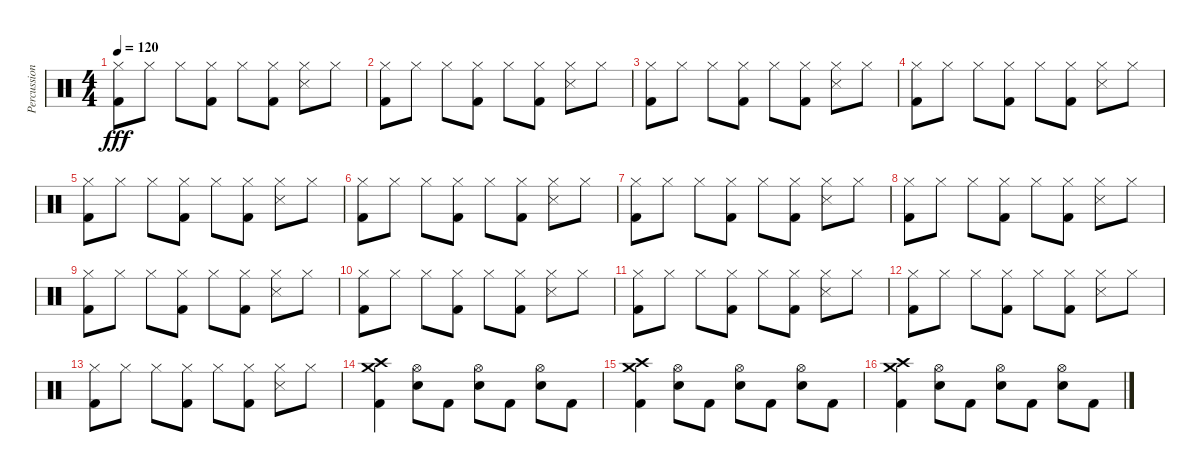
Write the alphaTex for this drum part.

\track ("Percussion" "Percussion") {instrument percussion}
\staff {score}
\articulation defaults
\ts (4 4)
\tempo 120
\clef neutral
\ks c
("Hi-Hat (closed)" "Kick (hit) 2").8{dy fff} "Hi-Hat (closed)".8 "Hi-Hat (closed)".8 ("Hi-Hat (closed)" "Kick (hit) 2").8 "Hi-Hat (closed)".8 ("Hi-Hat (closed)" "Kick (hit) 2").8 ("Hi-Hat (closed)" "Snare (side stick) 3").8 "Hi-Hat (closed)".8 |
("Hi-Hat (closed)" "Kick (hit) 2").8 "Hi-Hat (closed)".8 "Hi-Hat (closed)".8 ("Hi-Hat (closed)" "Kick (hit) 2").8 "Hi-Hat (closed)".8 ("Hi-Hat (closed)" "Kick (hit) 2").8 ("Hi-Hat (closed)" "Snare (side stick) 3").8 "Hi-Hat (closed)".8 |
("Hi-Hat (closed)" "Kick (hit) 2").8 "Hi-Hat (closed)".8 "Hi-Hat (closed)".8 ("Hi-Hat (closed)" "Kick (hit) 2").8 "Hi-Hat (closed)".8 ("Hi-Hat (closed)" "Kick (hit) 2").8 ("Hi-Hat (closed)" "Snare (side stick) 3").8 "Hi-Hat (closed)".8 |
("Hi-Hat (closed)" "Kick (hit) 2").8 "Hi-Hat (closed)".8 "Hi-Hat (closed)".8 ("Hi-Hat (closed)" "Kick (hit) 2").8 "Hi-Hat (closed)".8 ("Hi-Hat (closed)" "Kick (hit) 2").8 ("Hi-Hat (closed)" "Snare (side stick) 3").8 "Hi-Hat (closed)".8 |
("Hi-Hat (closed)" "Kick (hit) 2").8 "Hi-Hat (closed)".8 "Hi-Hat (closed)".8 ("Hi-Hat (closed)" "Kick (hit) 2").8 "Hi-Hat (closed)".8 ("Hi-Hat (closed)" "Kick (hit) 2").8 ("Hi-Hat (closed)" "Snare (side stick) 3").8 "Hi-Hat (closed)".8 |
("Hi-Hat (closed)" "Kick (hit) 2").8 "Hi-Hat (closed)".8 "Hi-Hat (closed)".8 ("Hi-Hat (closed)" "Kick (hit) 2").8 "Hi-Hat (closed)".8 ("Hi-Hat (closed)" "Kick (hit) 2").8 ("Hi-Hat (closed)" "Snare (side stick) 3").8 "Hi-Hat (closed)".8 |
("Hi-Hat (closed)" "Kick (hit) 2").8 "Hi-Hat (closed)".8 "Hi-Hat (closed)".8 ("Hi-Hat (closed)" "Kick (hit) 2").8 "Hi-Hat (closed)".8 ("Hi-Hat (closed)" "Kick (hit) 2").8 ("Hi-Hat (closed)" "Snare (side stick) 3").8 "Hi-Hat (closed)".8 |
("Hi-Hat (closed)" "Kick (hit) 2").8 "Hi-Hat (closed)".8 "Hi-Hat (closed)".8 ("Hi-Hat (closed)" "Kick (hit) 2").8 "Hi-Hat (closed)".8 ("Hi-Hat (closed)" "Kick (hit) 2").8 ("Hi-Hat (closed)" "Snare (side stick) 3").8 "Hi-Hat (closed)".8 |
("Hi-Hat (closed)" "Kick (hit) 2").8 "Hi-Hat (closed)".8 "Hi-Hat (closed)".8 ("Hi-Hat (closed)" "Kick (hit) 2").8 "Hi-Hat (closed)".8 ("Hi-Hat (closed)" "Kick (hit) 2").8 ("Hi-Hat (closed)" "Snare (side stick) 3").8 "Hi-Hat (closed)".8 |
("Hi-Hat (closed)" "Kick (hit) 2").8 "Hi-Hat (closed)".8 "Hi-Hat (closed)".8 ("Hi-Hat (closed)" "Kick (hit) 2").8 "Hi-Hat (closed)".8 ("Hi-Hat (closed)" "Kick (hit) 2").8 ("Hi-Hat (closed)" "Snare (side stick) 3").8 "Hi-Hat (closed)".8 |
("Hi-Hat (closed)" "Kick (hit) 2").8 "Hi-Hat (closed)".8 "Hi-Hat (closed)".8 ("Hi-Hat (closed)" "Kick (hit) 2").8 "Hi-Hat (closed)".8 ("Hi-Hat (closed)" "Kick (hit) 2").8 ("Hi-Hat (closed)" "Snare (side stick) 3").8 "Hi-Hat (closed)".8 |
("Hi-Hat (closed)" "Kick (hit) 2").8 "Hi-Hat (closed)".8 "Hi-Hat (closed)".8 ("Hi-Hat (closed)" "Kick (hit) 2").8 "Hi-Hat (closed)".8 ("Hi-Hat (closed)" "Kick (hit) 2").8 ("Hi-Hat (closed)" "Snare (side stick) 3").8 "Hi-Hat (closed)".8 |
("Hi-Hat (closed)" "Kick (hit) 2").8 "Hi-Hat (closed)".8 "Hi-Hat (closed)".8 ("Hi-Hat (closed)" "Kick (hit) 2").8 "Hi-Hat (closed)".8 ("Hi-Hat (closed)" "Kick (hit) 2").8 ("Hi-Hat (closed)" "Snare (side stick) 3").8 "Hi-Hat (closed)".8 |
("Crash high (hit)" "Crash medium (hit)" "Kick (hit) 2").4 ("Hi-Hat (open)" "Snare (hit) 2").8 "Kick (hit) 2".8 ("Hi-Hat (open)" "Snare (hit) 2").8 "Kick (hit) 2".8 ("Hi-Hat (open)" "Snare (hit) 2").8 "Kick (hit) 2".8 |
("Crash high (hit)" "Crash medium (hit)" "Kick (hit) 2").4 ("Hi-Hat (open)" "Snare (hit) 2").8 "Kick (hit) 2".8 ("Hi-Hat (open)" "Snare (hit) 2").8 "Kick (hit) 2".8 ("Hi-Hat (open)" "Snare (hit) 2").8 "Kick (hit) 2".8 |
("Crash high (hit)" "Crash medium (hit)" "Kick (hit) 2").4 ("Hi-Hat (open)" "Snare (hit) 2").8 "Kick (hit) 2".8 ("Hi-Hat (open)" "Snare (hit) 2").8 "Kick (hit) 2".8 ("Hi-Hat (open)" "Snare (hit) 2").8 "Kick (hit) 2".8
